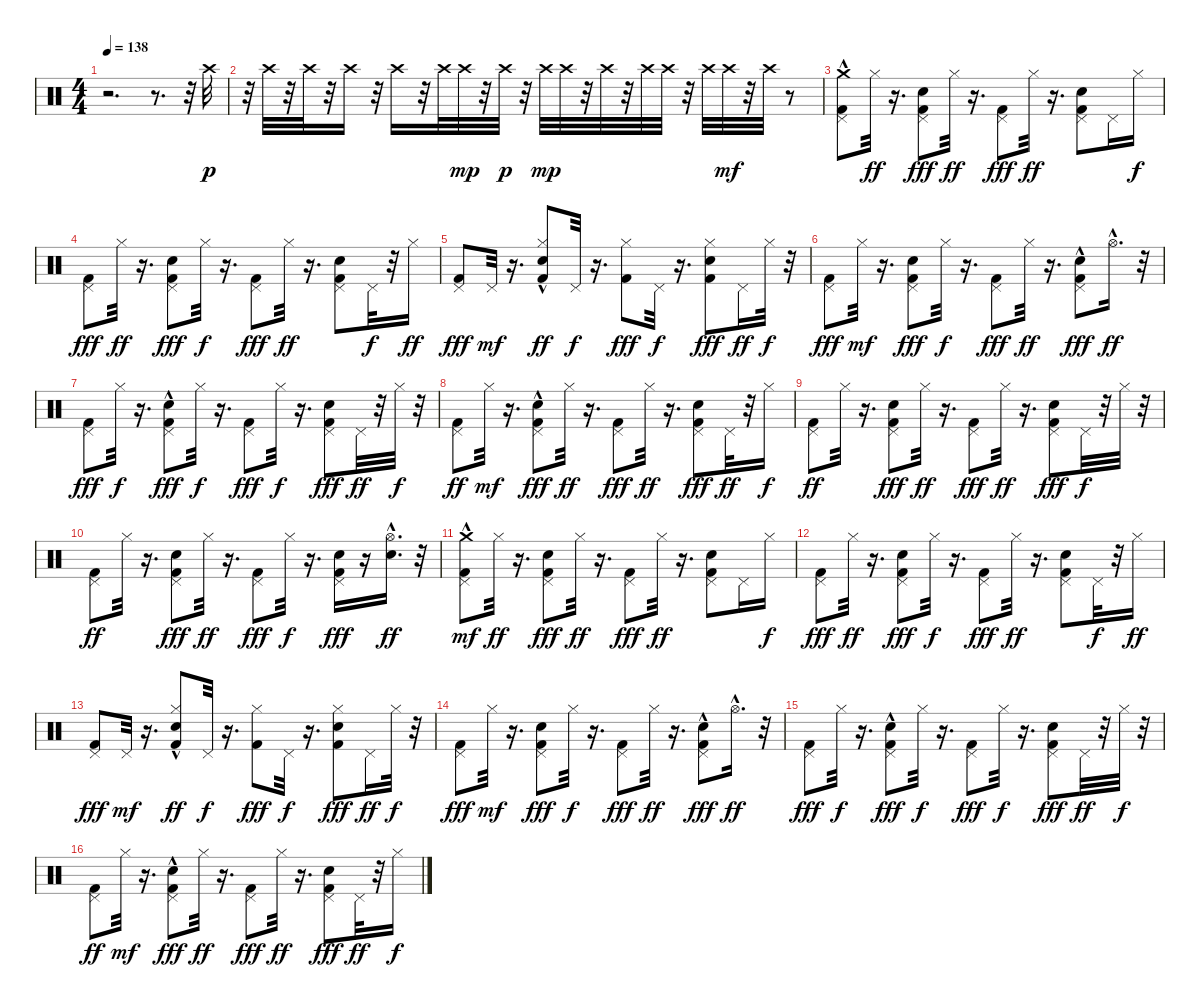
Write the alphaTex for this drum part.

\track "" {instrument percussion}
\staff {score}
\articulation defaults
\ts (4 4)
\tempo 138
\clef neutral
\ks c
r.2{d dy p} r.8{d} r.32 "Crash high (hit)".32 |
r.32 "Crash high (hit)".32 r.32 "Crash high (hit)".32 r.32 "Crash high (hit)".16 r.32 "Crash high (hit)".16 r.32 "Crash high (hit)".32 "Crash high (hit)".32{dy mp} r.32 "Crash high (hit)".32{dy p} r.32 "Crash high (hit)".32{dy mp} "Crash high (hit)".32 r.32 "Crash high (hit)".32 r.32 "Crash high (hit)".32 "Crash high (hit)".32 r.32 "Crash high (hit)".32 "Crash high (hit)".32{dy mf} r.32 "Crash high (hit)".32 r.8 |
("Kick (hit) 2" "Pedal Hi-Hat (hit)" "Crash medium (hit)"{hac}).8 "Hi-Hat (closed)".32{dy ff} r.16{d} ("Pedal Hi-Hat (hit)" "Kick (hit) 2" "Snare (hit) 2").8{dy fff} "Hi-Hat (closed)".32{dy ff} r.16{d} ("Pedal Hi-Hat (hit)" "Kick (hit) 2").8{dy fff} "Hi-Hat (closed)".32{dy ff} r.16{d} ("Snare (hit) 2" "Kick (hit) 2" "Pedal Hi-Hat (hit)").8 "Pedal Hi-Hat (hit)".16 "Hi-Hat (closed)".16{dy f} |
("Kick (hit) 2" "Pedal Hi-Hat (hit)").8{dy fff} "Hi-Hat (closed)".32{dy ff} r.16{d} ("Kick (hit) 2" "Snare (hit) 2" "Pedal Hi-Hat (hit)").8{dy fff} "Hi-Hat (closed)".32{dy f} r.16{d} ("Pedal Hi-Hat (hit)" "Kick (hit) 2").8{dy fff} "Hi-Hat (closed)".32{dy ff} r.16{d} ("Kick (hit) 2" "Snare (hit) 2" "Pedal Hi-Hat (hit)").8 "Pedal Hi-Hat (hit)".32{dy f} r.32 "Hi-Hat (closed)".16{dy ff} |
("Kick (hit) 2" "Pedal Hi-Hat (hit)").8{dy fff} "Pedal Hi-Hat (hit)".32{dy mf} r.16{d} ("Snare (hit) 2"{hac} "Kick (hit) 2" "Hi-Hat (closed)").8{dy ff} "Pedal Hi-Hat (hit)".32{dy f} r.16{d} ("Hi-Hat (closed)" "Kick (hit) 2").8{dy fff} "Pedal Hi-Hat (hit)".32{dy f} r.16{d} ("Snare (hit) 2" "Hi-Hat (closed)" "Kick (hit) 2").8{dy fff} "Pedal Hi-Hat (hit)".16{dy ff} "Hi-Hat (closed)".32{dy f} r.32 |
("Kick (hit) 2" "Pedal Hi-Hat (hit)").8{dy fff} "Hi-Hat (closed)".32{dy mf} r.16{d} ("Snare (hit) 2" "Kick (hit) 2" "Pedal Hi-Hat (hit)").8{dy fff} "Hi-Hat (closed)".32{dy f} r.16{d} ("Pedal Hi-Hat (hit)" "Kick (hit) 2").8{dy fff} "Hi-Hat (closed)".32{dy ff} r.16{d} ("Pedal Hi-Hat (hit)" "Snare (hit) 2"{hac} "Kick (hit) 2").8{dy fff} "Hi-Hat (open)"{hac}.16{d dy ff} r.32 |
("Kick (hit) 2" "Pedal Hi-Hat (hit)").8{dy fff} "Hi-Hat (closed)".32{dy f} r.16{d} ("Pedal Hi-Hat (hit)" "Snare (hit) 2"{hac} "Kick (hit) 2").8{dy fff} "Hi-Hat (closed)".32{dy f} r.16{d} ("Kick (hit) 2" "Pedal Hi-Hat (hit)").8{dy fff} "Hi-Hat (closed)".32{dy f} r.16{d} ("Kick (hit) 2" "Snare (hit) 2" "Pedal Hi-Hat (hit)").8{dy fff} "Pedal Hi-Hat (hit)".32{dy ff} r.32 "Hi-Hat (closed)".32{dy f} r.32 |
("Kick (hit) 2" "Pedal Hi-Hat (hit)").8{dy ff} "Hi-Hat (closed)".32{dy mf} r.16{d} ("Snare (hit) 2"{hac} "Kick (hit) 2" "Pedal Hi-Hat (hit)").8{dy fff} "Hi-Hat (closed)".32{dy ff} r.16{d} ("Pedal Hi-Hat (hit)" "Kick (hit) 2").8{dy fff} "Hi-Hat (closed)".32{dy ff} r.16{d} ("Snare (hit) 2" "Kick (hit) 2" "Pedal Hi-Hat (hit)").8{dy fff} "Pedal Hi-Hat (hit)".32{dy ff} r.32 "Hi-Hat (closed)".16{dy f} |
("Kick (hit) 2" "Pedal Hi-Hat (hit)").8{dy ff} "Hi-Hat (closed)".32 r.16{d} ("Pedal Hi-Hat (hit)" "Snare (hit) 2" "Kick (hit) 2").8{dy fff} "Hi-Hat (closed)".32{dy ff} r.16{d} ("Kick (hit) 2" "Pedal Hi-Hat (hit)").8{dy fff} "Hi-Hat (closed)".32{dy ff} r.16{d} ("Pedal Hi-Hat (hit)" "Snare (hit) 2" "Kick (hit) 2").8{dy fff} "Pedal Hi-Hat (hit)".32{dy f} r.32 "Hi-Hat (closed)".32 r.32 |
("Kick (hit) 2" "Pedal Hi-Hat (hit)").8{dy ff} "Hi-Hat (closed)".32 r.16{d} ("Snare (hit) 2" "Pedal Hi-Hat (hit)" "Kick (hit) 2").8{dy fff} "Hi-Hat (closed)".32{dy ff} r.16{d} ("Kick (hit) 2" "Pedal Hi-Hat (hit)").8{dy fff} "Hi-Hat (closed)".32{dy f} r.16{d} ("Pedal Hi-Hat (hit)" "Snare (hit) 2" "Kick (hit) 2").16{dy fff} r.16 ("Snare (hit) 2" "Hi-Hat (open)"{hac}).16{d dy ff} r.32 |
("Kick (hit) 2" "Pedal Hi-Hat (hit)" "Crash medium (hit)"{hac}).8{dy mf} "Hi-Hat (closed)".32{dy ff} r.16{d} ("Pedal Hi-Hat (hit)" "Kick (hit) 2" "Snare (hit) 2").8{dy fff} "Hi-Hat (closed)".32{dy ff} r.16{d} ("Pedal Hi-Hat (hit)" "Kick (hit) 2").8{dy fff} "Hi-Hat (closed)".32{dy ff} r.16{d} ("Snare (hit) 2" "Kick (hit) 2" "Pedal Hi-Hat (hit)").8 "Pedal Hi-Hat (hit)".16 "Hi-Hat (closed)".16{dy f} |
("Kick (hit) 2" "Pedal Hi-Hat (hit)").8{dy fff} "Hi-Hat (closed)".32{dy ff} r.16{d} ("Kick (hit) 2" "Snare (hit) 2" "Pedal Hi-Hat (hit)").8{dy fff} "Hi-Hat (closed)".32{dy f} r.16{d} ("Pedal Hi-Hat (hit)" "Kick (hit) 2").8{dy fff} "Hi-Hat (closed)".32{dy ff} r.16{d} ("Kick (hit) 2" "Snare (hit) 2" "Pedal Hi-Hat (hit)").8 "Pedal Hi-Hat (hit)".32{dy f} r.32 "Hi-Hat (closed)".16{dy ff} |
("Kick (hit) 2" "Pedal Hi-Hat (hit)").8{dy fff} "Pedal Hi-Hat (hit)".32{dy mf} r.16{d} ("Snare (hit) 2"{hac} "Kick (hit) 2" "Hi-Hat (closed)").8{dy ff} "Pedal Hi-Hat (hit)".32{dy f} r.16{d} ("Hi-Hat (closed)" "Kick (hit) 2").8{dy fff} "Pedal Hi-Hat (hit)".32{dy f} r.16{d} ("Snare (hit) 2" "Hi-Hat (closed)" "Kick (hit) 2").8{dy fff} "Pedal Hi-Hat (hit)".16{dy ff} "Hi-Hat (closed)".32{dy f} r.32 |
("Kick (hit) 2" "Pedal Hi-Hat (hit)").8{dy fff} "Hi-Hat (closed)".32{dy mf} r.16{d} ("Snare (hit) 2" "Kick (hit) 2" "Pedal Hi-Hat (hit)").8{dy fff} "Hi-Hat (closed)".32{dy f} r.16{d} ("Pedal Hi-Hat (hit)" "Kick (hit) 2").8{dy fff} "Hi-Hat (closed)".32{dy ff} r.16{d} ("Pedal Hi-Hat (hit)" "Snare (hit) 2"{hac} "Kick (hit) 2").8{dy fff} "Hi-Hat (open)"{hac}.16{d dy ff} r.32 |
("Kick (hit) 2" "Pedal Hi-Hat (hit)").8{dy fff} "Hi-Hat (closed)".32{dy f} r.16{d} ("Pedal Hi-Hat (hit)" "Snare (hit) 2"{hac} "Kick (hit) 2").8{dy fff} "Hi-Hat (closed)".32{dy f} r.16{d} ("Kick (hit) 2" "Pedal Hi-Hat (hit)").8{dy fff} "Hi-Hat (closed)".32{dy f} r.16{d} ("Kick (hit) 2" "Snare (hit) 2" "Pedal Hi-Hat (hit)").8{dy fff} "Pedal Hi-Hat (hit)".32{dy ff} r.32 "Hi-Hat (closed)".32{dy f} r.32 |
("Kick (hit) 2" "Pedal Hi-Hat (hit)").8{dy ff} "Hi-Hat (closed)".32{dy mf} r.16{d} ("Snare (hit) 2"{hac} "Kick (hit) 2" "Pedal Hi-Hat (hit)").8{dy fff} "Hi-Hat (closed)".32{dy ff} r.16{d} ("Pedal Hi-Hat (hit)" "Kick (hit) 2").8{dy fff} "Hi-Hat (closed)".32{dy ff} r.16{d} ("Snare (hit) 2" "Kick (hit) 2" "Pedal Hi-Hat (hit)").8{dy fff} "Pedal Hi-Hat (hit)".32{dy ff} r.32 "Hi-Hat (closed)".16{dy f}
